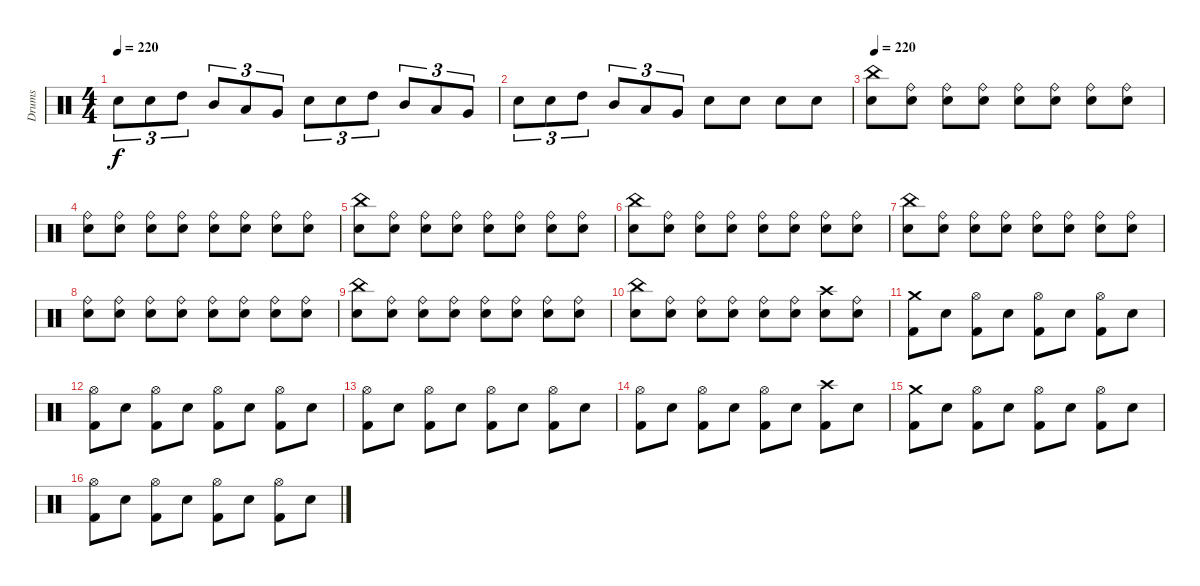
\track ("Drums" "Drums") {instrument percussion}
\staff {score}
\articulation defaults
\ts (4 4)
\tempo 220
\tempo 250
\tempo 220
\clef neutral
\ks c "Electric Snare (hit)".8{tu (3 2) dy f} "Electric Snare (hit)".8{tu (3 2)} "High Tom (hit)".8{tu (3 2)} "Mid Tom (hit)".8{tu (3 2)} "Low Tom (hit)".8{tu (3 2)} "Very Low Tom (hit)".8{tu (3 2)} "Electric Snare (hit)".8{tu (3 2)} "Electric Snare (hit)".8{tu (3 2)} "High Tom (hit)".8{tu (3 2)} "Mid Tom (hit)".8{tu (3 2)} "Low Tom (hit)".8{tu (3 2)} "Very Low Tom (hit)".8{tu (3 2)}
|
"Electric Snare (hit)".8{tu (3 2)} "Electric Snare (hit)".8{tu (3 2)} "High Tom (hit)".8{tu (3 2)} "Mid Tom (hit)".8{tu (3 2)} "Low Tom (hit)".8{tu (3 2)} "Very Low Tom (hit)".8{tu (3 2)} "Electric Snare (hit)".8 "Electric Snare (hit)".8 "Electric Snare (hit)".8 "Electric Snare (hit)".8 |
\tempo 220
("Electric Snare (hit)" "China (hit)").8 ("Electric Snare (hit)" "Ride (bell)").8 ("Electric Snare (hit)" "Ride (bell)").8 ("Electric Snare (hit)" "Ride (bell)").8 ("Electric Snare (hit)" "Ride (bell)").8 ("Electric Snare (hit)" "Ride (bell)").8 ("Electric Snare (hit)" "Ride (bell)").8 ("Electric Snare (hit)" "Ride (bell)").8 |
("Electric Snare (hit)" "Ride (bell)").8 ("Electric Snare (hit)" "Ride (bell)").8 ("Electric Snare (hit)" "Ride (bell)").8 ("Electric Snare (hit)" "Ride (bell)").8 ("Electric Snare (hit)" "Ride (bell)").8 ("Electric Snare (hit)" "Ride (bell)").8 ("Electric Snare (hit)" "Ride (bell)").8 ("Electric Snare (hit)" "Ride (bell)").8 |
("Electric Snare (hit)" "China (hit)").8 ("Electric Snare (hit)" "Ride (bell)").8 ("Electric Snare (hit)" "Ride (bell)").8 ("Electric Snare (hit)" "Ride (bell)").8 ("Electric Snare (hit)" "Ride (bell)").8 ("Electric Snare (hit)" "Ride (bell)").8 ("Electric Snare (hit)" "Ride (bell)").8 ("Electric Snare (hit)" "Ride (bell)").8 |
("Electric Snare (hit)" "China (hit)").8 ("Electric Snare (hit)" "Ride (bell)").8 ("Electric Snare (hit)" "Ride (bell)").8 ("Electric Snare (hit)" "Ride (bell)").8 ("Electric Snare (hit)" "Ride (bell)").8 ("Electric Snare (hit)" "Ride (bell)").8 ("Electric Snare (hit)" "Ride (bell)").8 ("Electric Snare (hit)" "Ride (bell)").8 |
("Electric Snare (hit)" "China (hit)").8 ("Electric Snare (hit)" "Ride (bell)").8 ("Electric Snare (hit)" "Ride (bell)").8 ("Electric Snare (hit)" "Ride (bell)").8 ("Electric Snare (hit)" "Ride (bell)").8 ("Electric Snare (hit)" "Ride (bell)").8 ("Electric Snare (hit)" "Ride (bell)").8 ("Electric Snare (hit)" "Ride (bell)").8 |
("Electric Snare (hit)" "Ride (bell)").8 ("Electric Snare (hit)" "Ride (bell)").8 ("Electric Snare (hit)" "Ride (bell)").8 ("Electric Snare (hit)" "Ride (bell)").8 ("Electric Snare (hit)" "Ride (bell)").8 ("Electric Snare (hit)" "Ride (bell)").8 ("Electric Snare (hit)" "Ride (bell)").8 ("Electric Snare (hit)" "Ride (bell)").8 |
("Electric Snare (hit)" "China (hit)").8 ("Electric Snare (hit)" "Ride (bell)").8 ("Electric Snare (hit)" "Ride (bell)").8 ("Electric Snare (hit)" "Ride (bell)").8 ("Electric Snare (hit)" "Ride (bell)").8 ("Electric Snare (hit)" "Ride (bell)").8 ("Electric Snare (hit)" "Ride (bell)").8 ("Electric Snare (hit)" "Ride (bell)").8 |
("Electric Snare (hit)" "China (hit)").8 ("Electric Snare (hit)" "Ride (bell)").8 ("Electric Snare (hit)" "Ride (bell)").8 ("Electric Snare (hit)" "Ride (bell)").8 ("Electric Snare (hit)" "Ride (bell)").8 ("Electric Snare (hit)" "Ride (bell)").8 ("Electric Snare (hit)" "Crash high (hit)").8 ("Electric Snare (hit)" "Ride (bell)").8 |
("Crash medium (hit)" "Kick (hit) 2").8 "Electric Snare (hit)".8 ("Hi-Hat (open)" "Kick (hit) 2").8 "Electric Snare (hit)".8 ("Hi-Hat (open)" "Kick (hit) 2").8 "Electric Snare (hit)".8 ("Hi-Hat (open)" "Kick (hit) 2").8 "Electric Snare (hit)".8 |
("Kick (hit) 2" "Hi-Hat (open)").8 "Electric Snare (hit)".8 ("Kick (hit) 2" "Hi-Hat (open)").8 "Electric Snare (hit)".8 ("Kick (hit) 2" "Hi-Hat (open)").8 "Electric Snare (hit)".8 ("Kick (hit) 2" "Hi-Hat (open)").8 "Electric Snare (hit)".8 |
("Kick (hit) 2" "Hi-Hat (open)").8 "Electric Snare (hit)".8 ("Kick (hit) 2" "Hi-Hat (open)").8 "Electric Snare (hit)".8 ("Kick (hit) 2" "Hi-Hat (open)").8 "Electric Snare (hit)".8 ("Kick (hit) 2" "Hi-Hat (open)").8 "Electric Snare (hit)".8 |
("Kick (hit) 2" "Hi-Hat (open)").8 "Electric Snare (hit)".8 ("Kick (hit) 2" "Hi-Hat (open)").8 "Electric Snare (hit)".8 ("Kick (hit) 2" "Hi-Hat (open)").8 "Electric Snare (hit)".8 ("Kick (hit) 2" "Crash high (hit)").8 "Electric Snare (hit)".8 |
("Kick (hit) 2" "Crash medium (hit)").8 "Electric Snare (hit)".8 ("Kick (hit) 2" "Hi-Hat (open)").8 "Electric Snare (hit)".8 ("Kick (hit) 2" "Hi-Hat (open)").8 "Electric Snare (hit)".8 ("Kick (hit) 2" "Hi-Hat (open)").8 "Electric Snare (hit)".8 |
("Kick (hit) 2" "Hi-Hat (open)").8 "Electric Snare (hit)".8 ("Kick (hit) 2" "Hi-Hat (open)").8 "Electric Snare (hit)".8 ("Kick (hit) 2" "Hi-Hat (open)").8 "Electric Snare (hit)".8 ("Kick (hit) 2" "Hi-Hat (open)").8 "Electric Snare (hit)".8
